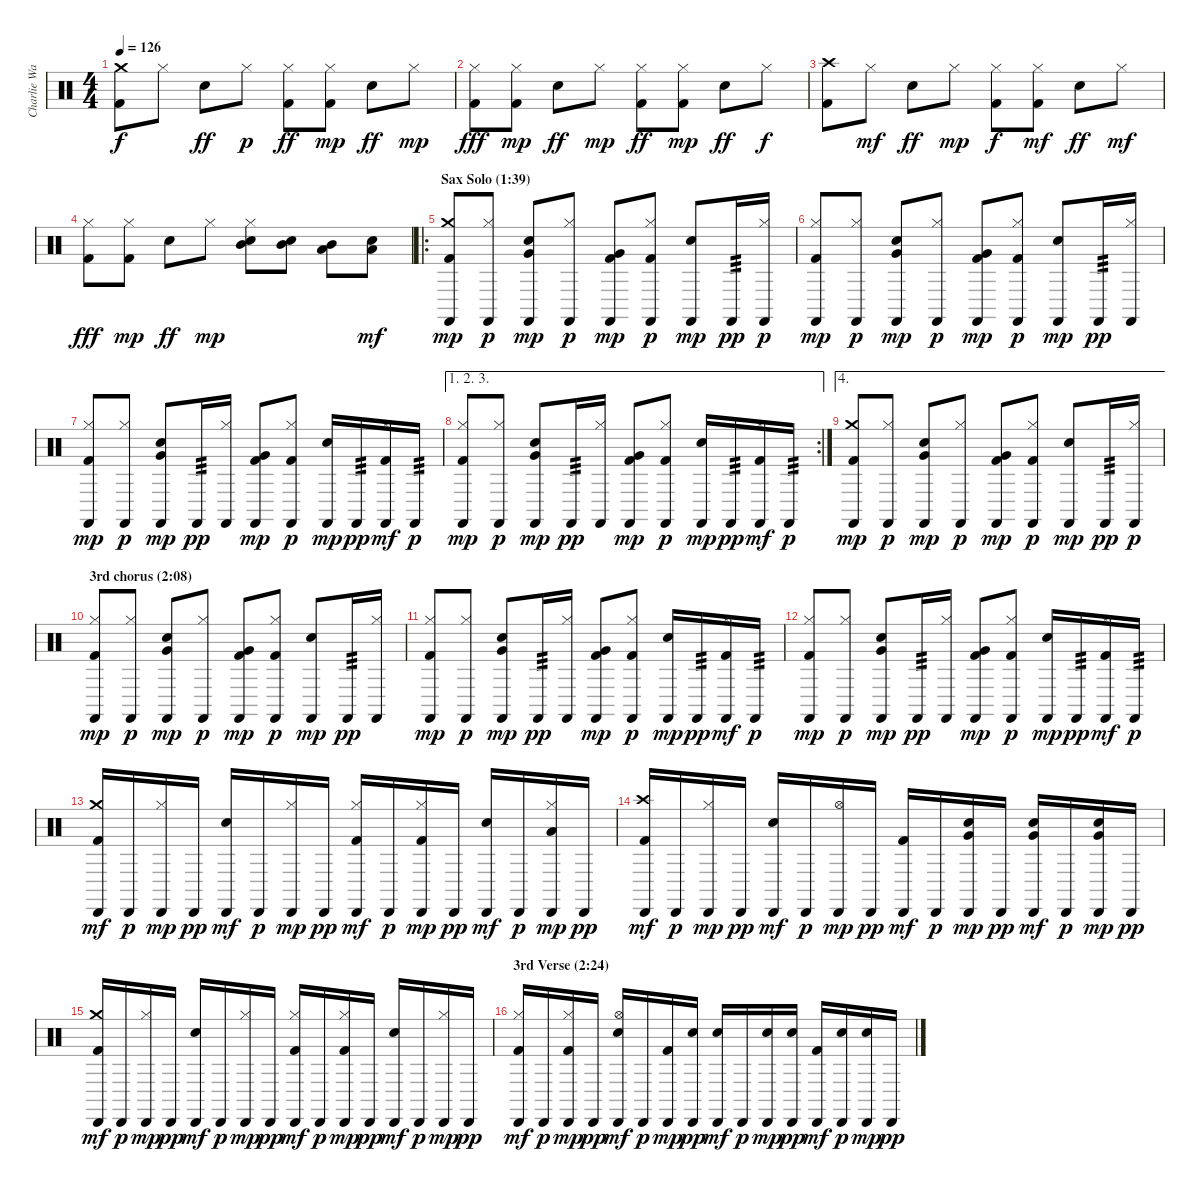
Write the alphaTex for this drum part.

\track ("Charlie Watts" "Charlie Wa") {instrument percussion}
\staff {score}
\articulation defaults
\ts (4 4)
\tempo 126
\clef neutral
\ks c
("Kick (hit) 2" "Crash medium (hit)").8{dy f} "Hi-Hat (closed)".8 "Electric Snare (hit)".8{dy ff} "Hi-Hat (closed)".8{dy p} ("Kick (hit) 2" "Hi-Hat (closed)").8{dy ff} ("Kick (hit) 2" "Hi-Hat (closed)").8{dy mp} "Electric Snare (hit)".8{dy ff} "Hi-Hat (closed)".8{dy mp} |
("Kick (hit) 2" "Hi-Hat (closed)").8{dy fff} ("Kick (hit) 2" "Hi-Hat (closed)").8{dy mp} "Electric Snare (hit)".8{dy ff} "Hi-Hat (closed)".8{dy mp} ("Kick (hit) 2" "Hi-Hat (closed)").8{dy ff} ("Kick (hit) 2" "Hi-Hat (closed)").8{dy mp} "Electric Snare (hit)".8{dy ff} "Hi-Hat (closed)".8{dy f} |
("Kick (hit) 2" "Crash high (hit)").8 "Hi-Hat (closed)".8{dy mf} "Electric Snare (hit)".8{dy ff} "Hi-Hat (closed)".8{dy mp} ("Kick (hit) 2" "Hi-Hat (closed)").8{dy f} ("Kick (hit) 2" "Hi-Hat (closed)").8{dy mf} "Electric Snare (hit)".8{dy ff} "Hi-Hat (closed)".8{dy mf} |
("Kick (hit) 2" "Hi-Hat (closed)").8{dy fff} ("Kick (hit) 2" "Hi-Hat (closed)").8{dy mp} "Electric Snare (hit)".8{dy ff} "Hi-Hat (closed)".8{dy mp} ("Electric Snare (hit)" "Hi-Hat (closed)" "Mid Tom (hit)").8 ("Electric Snare (hit)" "Mid Tom (hit)").8 ("Low Tom (hit)" "Mid Tom (hit)").8 ("Electric Snare (hit)" "Low Tom (hit)").8{dy mf} |
\ro
\section ("" "Sax Solo (1:39)")
("Kick (hit) 2" "Crash medium (hit)" "Castanets (hit)").8{dy mp} ("Hi-Hat (closed)" "Castanets (hit)").8{dy p} ("Electric Snare (hit)" "Very Low Tom (hit)" "Castanets (hit)").8{dy mp} ("Hi-Hat (closed)" "Castanets (hit)").8{dy p} ("Kick (hit) 2" "Very Low Tom (hit)" "Castanets (hit)").8{dy mp} ("Kick (hit) 2" "Hi-Hat (closed)" "Castanets (hit)").8{dy p} ("Electric Snare (hit)" "Castanets (hit)").8{dy mp} "Castanets (hit)".16{tp 3 dy pp} ("Hi-Hat (closed)" "Castanets (hit)").16{dy p} |
("Kick (hit) 2" "Hi-Hat (closed)" "Castanets (hit)").8{dy mp} ("Hi-Hat (closed)" "Castanets (hit)").8{dy p} ("Electric Snare (hit)" "Very Low Tom (hit)" "Castanets (hit)").8{dy mp} ("Hi-Hat (closed)" "Castanets (hit)").8{dy p} ("Kick (hit) 2" "Very Low Tom (hit)" "Castanets (hit)").8{dy mp} ("Kick (hit) 2" "Hi-Hat (closed)" "Castanets (hit)").8{dy p} ("Electric Snare (hit)" "Castanets (hit)").8{dy mp} "Castanets (hit)".16{tp 3 dy pp} ("Hi-Hat (closed)" "Castanets (hit)").16 |
("Kick (hit) 2" "Hi-Hat (closed)" "Castanets (hit)").8{dy mp} ("Hi-Hat (closed)" "Castanets (hit)").8{dy p} ("Electric Snare (hit)" "Very Low Tom (hit)" "Castanets (hit)").8{dy mp} "Castanets (hit)".16{tp 3 dy pp} ("Hi-Hat (closed)" "Castanets (hit)").16 ("Kick (hit) 2" "Very Low Tom (hit)" "Castanets (hit)").8{dy mp} ("Kick (hit) 2" "Hi-Hat (closed)" "Castanets (hit)").8{dy p} ("Electric Snare (hit)" "Castanets (hit)").16{dy mp} "Castanets (hit)".16{tp 3 dy pp} ("Kick (hit) 2" "Hi-Hat (closed)" "Castanets (hit)").16{dy mf} "Castanets (hit)".16{tp 3 dy p} |
\ae (1 2 3)
\rc 2
("Kick (hit) 2" "Hi-Hat (closed)" "Castanets (hit)").8{dy mp} ("Hi-Hat (closed)" "Castanets (hit)").8{dy p} ("Electric Snare (hit)" "Very Low Tom (hit)" "Castanets (hit)").8{dy mp} "Castanets (hit)".16{tp 3 dy pp} ("Hi-Hat (closed)" "Castanets (hit)").16 ("Kick (hit) 2" "Very Low Tom (hit)" "Castanets (hit)").8{dy mp} ("Kick (hit) 2" "Hi-Hat (closed)" "Castanets (hit)").8{dy p} ("Electric Snare (hit)" "Castanets (hit)").16{dy mp} "Castanets (hit)".16{tp 3 dy pp} ("Kick (hit) 2" "Hi-Hat (closed)" "Castanets (hit)").16{dy mf} "Castanets (hit)".16{tp 3 dy p} |
\ae 4
("Kick (hit) 2" "Crash medium (hit)" "Castanets (hit)").8{dy mp} ("Hi-Hat (closed)" "Castanets (hit)").8{dy p} ("Electric Snare (hit)" "Very Low Tom (hit)" "Castanets (hit)").8{dy mp} ("Hi-Hat (closed)" "Castanets (hit)").8{dy p} ("Kick (hit) 2" "Very Low Tom (hit)" "Castanets (hit)").8{dy mp} ("Kick (hit) 2" "Hi-Hat (closed)" "Castanets (hit)").8{dy p} ("Electric Snare (hit)" "Castanets (hit)").8{dy mp} "Castanets (hit)".16{tp 3 dy pp} ("Hi-Hat (closed)" "Castanets (hit)").16{dy p} |
\section ("" "3rd chorus (2:08)")
("Kick (hit) 2" "Hi-Hat (closed)" "Castanets (hit)").8{dy mp} ("Hi-Hat (closed)" "Castanets (hit)").8{dy p} ("Electric Snare (hit)" "Very Low Tom (hit)" "Castanets (hit)").8{dy mp} ("Hi-Hat (closed)" "Castanets (hit)").8{dy p} ("Kick (hit) 2" "Very Low Tom (hit)" "Castanets (hit)").8{dy mp} ("Kick (hit) 2" "Hi-Hat (closed)" "Castanets (hit)").8{dy p} ("Electric Snare (hit)" "Castanets (hit)").8{dy mp} "Castanets (hit)".16{tp 3 dy pp} ("Hi-Hat (closed)" "Castanets (hit)").16 |
("Kick (hit) 2" "Hi-Hat (closed)" "Castanets (hit)").8{dy mp} ("Hi-Hat (closed)" "Castanets (hit)").8{dy p} ("Electric Snare (hit)" "Very Low Tom (hit)" "Castanets (hit)").8{dy mp} "Castanets (hit)".16{tp 3 dy pp} ("Hi-Hat (closed)" "Castanets (hit)").16 ("Kick (hit) 2" "Very Low Tom (hit)" "Castanets (hit)").8{dy mp} ("Kick (hit) 2" "Hi-Hat (closed)" "Castanets (hit)").8{dy p} ("Electric Snare (hit)" "Castanets (hit)").16{dy mp} "Castanets (hit)".16{tp 3 dy pp} ("Kick (hit) 2" "Hi-Hat (closed)" "Castanets (hit)").16{dy mf} "Castanets (hit)".16{tp 3 dy p} |
("Kick (hit) 2" "Hi-Hat (closed)" "Castanets (hit)").8{dy mp} ("Hi-Hat (closed)" "Castanets (hit)").8{dy p} ("Electric Snare (hit)" "Very Low Tom (hit)" "Castanets (hit)").8{dy mp} "Castanets (hit)".16{tp 3 dy pp} ("Hi-Hat (closed)" "Castanets (hit)").16 ("Kick (hit) 2" "Very Low Tom (hit)" "Castanets (hit)").8{dy mp} ("Kick (hit) 2" "Hi-Hat (closed)" "Castanets (hit)").8{dy p} ("Electric Snare (hit)" "Castanets (hit)").16{dy mp} "Castanets (hit)".16{tp 3 dy pp} ("Kick (hit) 2" "Hi-Hat (closed)" "Castanets (hit)").16{dy mf} "Castanets (hit)".16{tp 3 dy p} |
("Kick (hit) 2" "Crash medium (hit)" "Cabasa (hit)").16{dy mf} "Cabasa (hit)".16{dy p} ("Hi-Hat (closed)" "Cabasa (hit)").16{dy mp} "Cabasa (hit)".16{dy pp} ("Electric Snare (hit)" "Cabasa (hit)").16{dy mf} "Cabasa (hit)".16{dy p} ("Hi-Hat (closed)" "Cabasa (hit)").16{dy mp} "Cabasa (hit)".16{dy pp} ("Kick (hit) 2" "Hi-Hat (closed)" "Cabasa (hit)").16{dy mf} "Cabasa (hit)".16{dy p} ("Kick (hit) 2" "Hi-Hat (closed)" "Cabasa (hit)").16{dy mp} "Cabasa (hit)".16{dy pp} ("Electric Snare (hit)" "Cabasa (hit)").16{dy mf} "Cabasa (hit)".16{dy p} ("Hi-Hat (closed)" "Low Tom (hit)" "Cabasa (hit)").16{dy mp} "Cabasa (hit)".16{dy pp} |
("Kick (hit) 2" "Crash high (hit)" "Cabasa (hit)").16{dy mf} "Cabasa (hit)".16{dy p} ("Hi-Hat (closed)" "Cabasa (hit)").16{dy mp} "Cabasa (hit)".16{dy pp} ("Electric Snare (hit)" "Cabasa (hit)").16{dy mf} "Cabasa (hit)".16{dy p} ("Hi-Hat (open)" "Cabasa (hit)").16{dy mp} "Cabasa (hit)".16{dy pp} ("Kick (hit) 2" "Cabasa (hit)").16{dy mf} "Cabasa (hit)".16{dy p} ("Electric Snare (hit)" "Very Low Tom (hit)" "Cabasa (hit)").16{dy mp} "Cabasa (hit)".16{dy pp} ("Electric Snare (hit)" "Very Low Tom (hit)" "Cabasa (hit)").16{dy mf} "Cabasa (hit)".16{dy p} ("Electric Snare (hit)" "Very Low Tom (hit)" "Cabasa (hit)").16{dy mp} "Cabasa (hit)".16{dy pp} |
("Kick (hit) 2" "Crash medium (hit)" "Cabasa (hit)").16{dy mf} "Cabasa (hit)".16{dy p} ("Hi-Hat (closed)" "Cabasa (hit)").16{dy mp} "Cabasa (hit)".16{dy pp} ("Electric Snare (hit)" "Cabasa (hit)").16{dy mf} "Cabasa (hit)".16{dy p} ("Hi-Hat (closed)" "Cabasa (hit)").16{dy mp} "Cabasa (hit)".16{dy pp} ("Kick (hit) 2" "Hi-Hat (closed)" "Cabasa (hit)").16{dy mf} "Cabasa (hit)".16{dy p} ("Kick (hit) 2" "Hi-Hat (closed)" "Cabasa (hit)").16{dy mp} "Cabasa (hit)".16{dy pp} ("Electric Snare (hit)" "Cabasa (hit)").16{dy mf} "Cabasa (hit)".16{dy p} ("Hi-Hat (closed)" "Cabasa (hit)").16{dy mp} "Cabasa (hit)".16{dy pp} |
\section ("" "3rd Verse (2:24)")
("Kick (hit) 2" "Hi-Hat (closed)" "Cabasa (hit)").16{dy mf} "Cabasa (hit)".16{dy p} ("Kick (hit) 2" "Hi-Hat (closed)" "Cabasa (hit)").16{dy mp} "Cabasa (hit)".16{dy pp} ("Electric Snare (hit)" "Hi-Hat (open)" "Cabasa (hit)").16{dy mf} "Cabasa (hit)".16{dy p} ("Kick (hit) 2" "Cabasa (hit)").16{dy mp} ("Electric Snare (hit)" "Cabasa (hit)").16{dy pp} ("Electric Snare (hit)" "Cabasa (hit)").16{dy mf} "Cabasa (hit)".16{dy p} ("Electric Snare (hit)" "Cabasa (hit)").16{dy mp} ("Electric Snare (hit)" "Cabasa (hit)").16{dy pp} ("Kick (hit) 2" "Cabasa (hit)").16{dy mf} ("Electric Snare (hit)" "Cabasa (hit)").16{dy p} ("Electric Snare (hit)" "Cabasa (hit)").16{dy mp} "Cabasa (hit)".16{dy pp}
